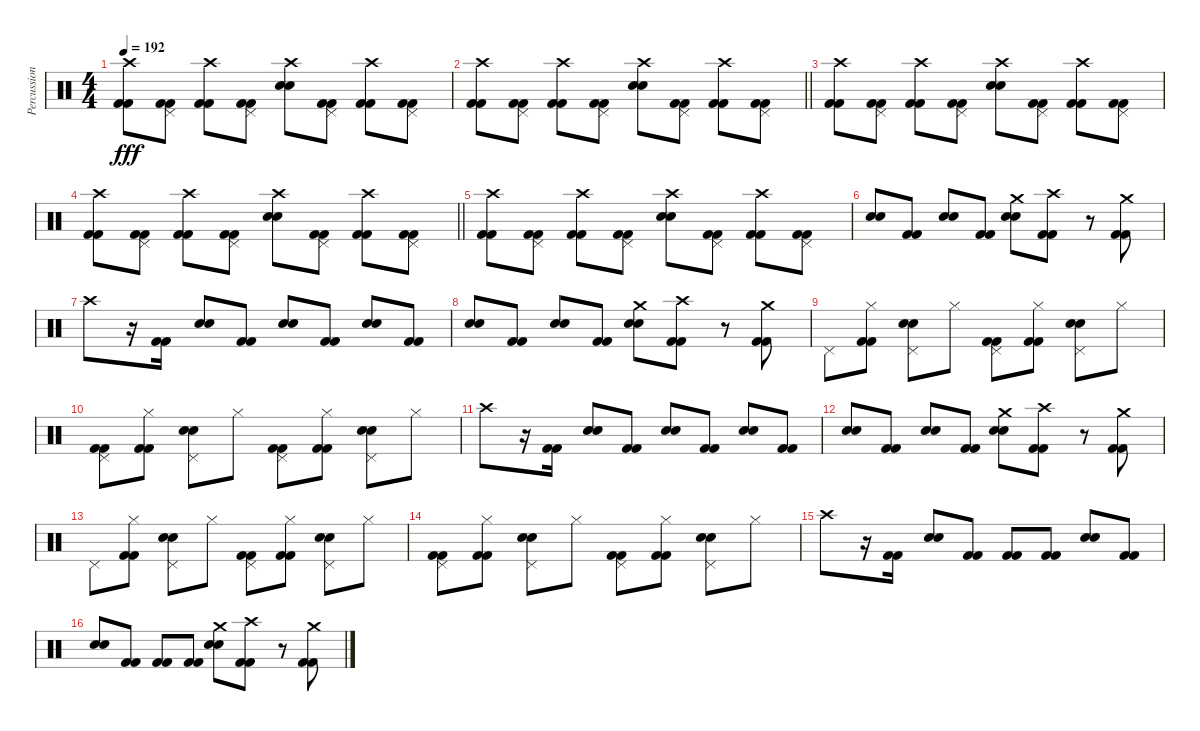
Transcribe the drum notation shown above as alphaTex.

\track ("Percussion" "Percussion") {instrument percussion}
\staff {score}
\articulation defaults
\ts (4 4)
\tempo 192
\clef neutral
\ks c
("Crash high (hit)" "Kick (hit) 2" "Kick (hit) 2").8{dy fff} ("Pedal Hi-Hat (hit)" "Kick (hit) 2" "Kick (hit) 2").8 ("Crash high (hit)" "Kick (hit) 2" "Kick (hit) 2").8 ("Pedal Hi-Hat (hit)" "Kick (hit) 2" "Kick (hit) 2").8 ("Crash high (hit)" "Snare (hit) 2" "Electric Snare (hit)").8 ("Pedal Hi-Hat (hit)" "Kick (hit) 2" "Kick (hit) 2").8 ("Crash high (hit)" "Kick (hit) 2" "Kick (hit) 2").8 ("Pedal Hi-Hat (hit)" "Kick (hit) 2" "Kick (hit) 2").8 |
\barLineRight lightlight
("Crash high (hit)" "Kick (hit) 2" "Kick (hit) 2").8 ("Pedal Hi-Hat (hit)" "Kick (hit) 2" "Kick (hit) 2").8 ("Crash high (hit)" "Kick (hit) 2" "Kick (hit) 2").8 ("Pedal Hi-Hat (hit)" "Kick (hit) 2" "Kick (hit) 2").8 ("Crash high (hit)" "Snare (hit) 2" "Electric Snare (hit)").8 ("Pedal Hi-Hat (hit)" "Kick (hit) 2" "Kick (hit) 2").8 ("Crash high (hit)" "Kick (hit) 2" "Kick (hit) 2").8 ("Pedal Hi-Hat (hit)" "Kick (hit) 2" "Kick (hit) 2").8 |
("Crash high (hit)" "Kick (hit) 2" "Kick (hit) 2").8 ("Pedal Hi-Hat (hit)" "Kick (hit) 2" "Kick (hit) 2").8 ("Crash high (hit)" "Kick (hit) 2" "Kick (hit) 2").8 ("Pedal Hi-Hat (hit)" "Kick (hit) 2" "Kick (hit) 2").8 ("Crash high (hit)" "Snare (hit) 2" "Electric Snare (hit)").8 ("Pedal Hi-Hat (hit)" "Kick (hit) 2" "Kick (hit) 2").8 ("Crash high (hit)" "Kick (hit) 2" "Kick (hit) 2").8 ("Pedal Hi-Hat (hit)" "Kick (hit) 2" "Kick (hit) 2").8 |
\barLineRight lightlight
("Crash high (hit)" "Kick (hit) 2" "Kick (hit) 2").8 ("Pedal Hi-Hat (hit)" "Kick (hit) 2" "Kick (hit) 2").8 ("Crash high (hit)" "Kick (hit) 2" "Kick (hit) 2").8 ("Pedal Hi-Hat (hit)" "Kick (hit) 2" "Kick (hit) 2").8 ("Crash high (hit)" "Snare (hit) 2" "Electric Snare (hit)").8 ("Pedal Hi-Hat (hit)" "Kick (hit) 2" "Kick (hit) 2").8 ("Crash high (hit)" "Kick (hit) 2" "Kick (hit) 2").8 ("Pedal Hi-Hat (hit)" "Kick (hit) 2" "Kick (hit) 2").8 |
("Crash high (hit)" "Kick (hit) 2" "Kick (hit) 2").8 ("Pedal Hi-Hat (hit)" "Kick (hit) 2" "Kick (hit) 2").8 ("Crash high (hit)" "Kick (hit) 2" "Kick (hit) 2").8 ("Pedal Hi-Hat (hit)" "Kick (hit) 2" "Kick (hit) 2").8 ("Crash high (hit)" "Snare (hit) 2" "Electric Snare (hit)").8 ("Pedal Hi-Hat (hit)" "Kick (hit) 2" "Kick (hit) 2").8 ("Crash high (hit)" "Kick (hit) 2" "Kick (hit) 2").8 ("Pedal Hi-Hat (hit)" "Kick (hit) 2" "Kick (hit) 2").8 |
("Snare (hit) 2" "Electric Snare (hit)").8 ("Kick (hit) 2" "Kick (hit) 2").8 ("Snare (hit) 2" "Electric Snare (hit)").8 ("Kick (hit) 2" "Kick (hit) 2").8 ("Crash medium (hit)" "Snare (hit) 2" "Electric Snare (hit)").8 ("Crash high (hit)" "Kick (hit) 2" "Kick (hit) 2").8 r.8 ("Crash medium (hit)" "Kick (hit) 2" "Kick (hit) 2").8 |
"Crash high (hit)".8 r.16 ("Kick (hit) 2" "Kick (hit) 2").16 ("Snare (hit) 2" "Electric Snare (hit)").8 ("Kick (hit) 2" "Kick (hit) 2").8 ("Snare (hit) 2" "Electric Snare (hit)").8 ("Kick (hit) 2" "Kick (hit) 2").8 ("Snare (hit) 2" "Electric Snare (hit)").8 ("Kick (hit) 2" "Kick (hit) 2").8 |
("Snare (hit) 2" "Electric Snare (hit)").8 ("Kick (hit) 2" "Kick (hit) 2").8 ("Snare (hit) 2" "Electric Snare (hit)").8 ("Kick (hit) 2" "Kick (hit) 2").8 ("Crash medium (hit)" "Snare (hit) 2" "Electric Snare (hit)").8 ("Crash high (hit)" "Kick (hit) 2" "Kick (hit) 2").8 r.8 ("Crash medium (hit)" "Kick (hit) 2" "Kick (hit) 2").8 |
"Pedal Hi-Hat (hit)".8 ("Hi-Hat (closed)" "Kick (hit) 2" "Kick (hit) 2").8 ("Pedal Hi-Hat (hit)" "Snare (hit) 2" "Electric Snare (hit)").8 "Hi-Hat (closed)".8 ("Pedal Hi-Hat (hit)" "Kick (hit) 2" "Kick (hit) 2").8 ("Hi-Hat (closed)" "Kick (hit) 2" "Kick (hit) 2").8 ("Pedal Hi-Hat (hit)" "Snare (hit) 2" "Electric Snare (hit)").8 "Hi-Hat (closed)".8 |
("Pedal Hi-Hat (hit)" "Kick (hit) 2" "Kick (hit) 2").8 ("Hi-Hat (closed)" "Kick (hit) 2" "Kick (hit) 2").8 ("Pedal Hi-Hat (hit)" "Snare (hit) 2" "Electric Snare (hit)").8 "Hi-Hat (closed)".8 ("Pedal Hi-Hat (hit)" "Kick (hit) 2" "Kick (hit) 2").8 ("Hi-Hat (closed)" "Kick (hit) 2" "Kick (hit) 2").8 ("Pedal Hi-Hat (hit)" "Snare (hit) 2" "Electric Snare (hit)").8 "Hi-Hat (closed)".8 |
"Crash high (hit)".8 r.16 ("Kick (hit) 2" "Kick (hit) 2").16 ("Snare (hit) 2" "Electric Snare (hit)").8 ("Kick (hit) 2" "Kick (hit) 2").8 ("Snare (hit) 2" "Electric Snare (hit)").8 ("Kick (hit) 2" "Kick (hit) 2").8 ("Snare (hit) 2" "Electric Snare (hit)").8 ("Kick (hit) 2" "Kick (hit) 2").8 |
("Snare (hit) 2" "Electric Snare (hit)").8 ("Kick (hit) 2" "Kick (hit) 2").8 ("Snare (hit) 2" "Electric Snare (hit)").8 ("Kick (hit) 2" "Kick (hit) 2").8 ("Crash medium (hit)" "Snare (hit) 2" "Electric Snare (hit)").8 ("Crash high (hit)" "Kick (hit) 2" "Kick (hit) 2").8 r.8 ("Crash medium (hit)" "Kick (hit) 2" "Kick (hit) 2").8 |
"Pedal Hi-Hat (hit)".8 ("Hi-Hat (closed)" "Kick (hit) 2" "Kick (hit) 2").8 ("Pedal Hi-Hat (hit)" "Snare (hit) 2" "Electric Snare (hit)").8 "Hi-Hat (closed)".8 ("Pedal Hi-Hat (hit)" "Kick (hit) 2" "Kick (hit) 2").8 ("Hi-Hat (closed)" "Kick (hit) 2" "Kick (hit) 2").8 ("Pedal Hi-Hat (hit)" "Snare (hit) 2" "Electric Snare (hit)").8 "Hi-Hat (closed)".8 |
("Pedal Hi-Hat (hit)" "Kick (hit) 2" "Kick (hit) 2").8 ("Hi-Hat (closed)" "Kick (hit) 2" "Kick (hit) 2").8 ("Pedal Hi-Hat (hit)" "Snare (hit) 2" "Electric Snare (hit)").8 "Hi-Hat (closed)".8 ("Pedal Hi-Hat (hit)" "Kick (hit) 2" "Kick (hit) 2").8 ("Hi-Hat (closed)" "Kick (hit) 2" "Kick (hit) 2").8 ("Pedal Hi-Hat (hit)" "Snare (hit) 2" "Electric Snare (hit)").8 "Hi-Hat (closed)".8 |
"Crash high (hit)".8 r.16 ("Kick (hit) 2" "Kick (hit) 2").16 ("Snare (hit) 2" "Electric Snare (hit)").8 ("Kick (hit) 2" "Kick (hit) 2").8 ("Kick (hit) 2" "Kick (hit) 2").8 ("Kick (hit) 2" "Kick (hit) 2").8 ("Snare (hit) 2" "Electric Snare (hit)").8 ("Kick (hit) 2" "Kick (hit) 2").8 |
("Snare (hit) 2" "Electric Snare (hit)").8 ("Kick (hit) 2" "Kick (hit) 2").8 ("Kick (hit) 2" "Kick (hit) 2").8 ("Kick (hit) 2" "Kick (hit) 2").8 ("Crash medium (hit)" "Snare (hit) 2" "Electric Snare (hit)").8 ("Crash high (hit)" "Kick (hit) 2" "Kick (hit) 2").8 r.8 ("Crash medium (hit)" "Kick (hit) 2" "Kick (hit) 2").8
